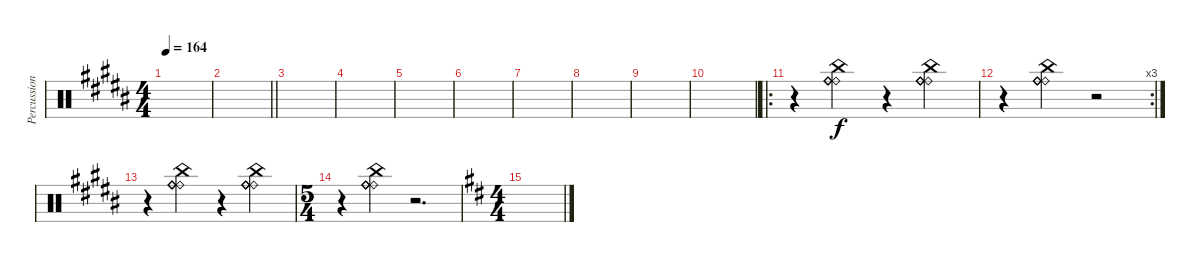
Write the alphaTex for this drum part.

\track ("Percussion" "Percussion") {instrument percussion}
\staff {score}
\articulation defaults
\ts (4 4)
\tempo 164
\clef neutral
\ks g#minor
|
\barLineRight lightlight
|
|
|
|
|
|
|
|
|
\ro
r.4 ("China (hit)" "Ride (bell)" "Ride (bell)" "Ride (bell)" "Ride (bell)" "Ride (bell)").4 r.4 ("China (hit)" "Ride (bell)" "Ride (bell)" "Ride (bell)" "Ride (bell)" "Ride (bell)").4 |
\rc 3
r.4 ("China (hit)" "Ride (bell)" "Ride (bell)" "Ride (bell)" "Ride (bell)" "Ride (bell)").4 r.2 |
r.4 ("China (hit)" "Ride (bell)" "Ride (bell)" "Ride (bell)" "Ride (bell)" "Ride (bell)").4 r.4 ("China (hit)" "Ride (bell)" "Ride (bell)" "Ride (bell)" "Ride (bell)" "Ride (bell)").4 |
\ts (5 4)
r.4 ("China (hit)" "Ride (bell)" "Ride (bell)" "Ride (bell)" "Ride (bell)" "Ride (bell)").4 r.2{d} |
\ts (4 4)
\ks bminor
